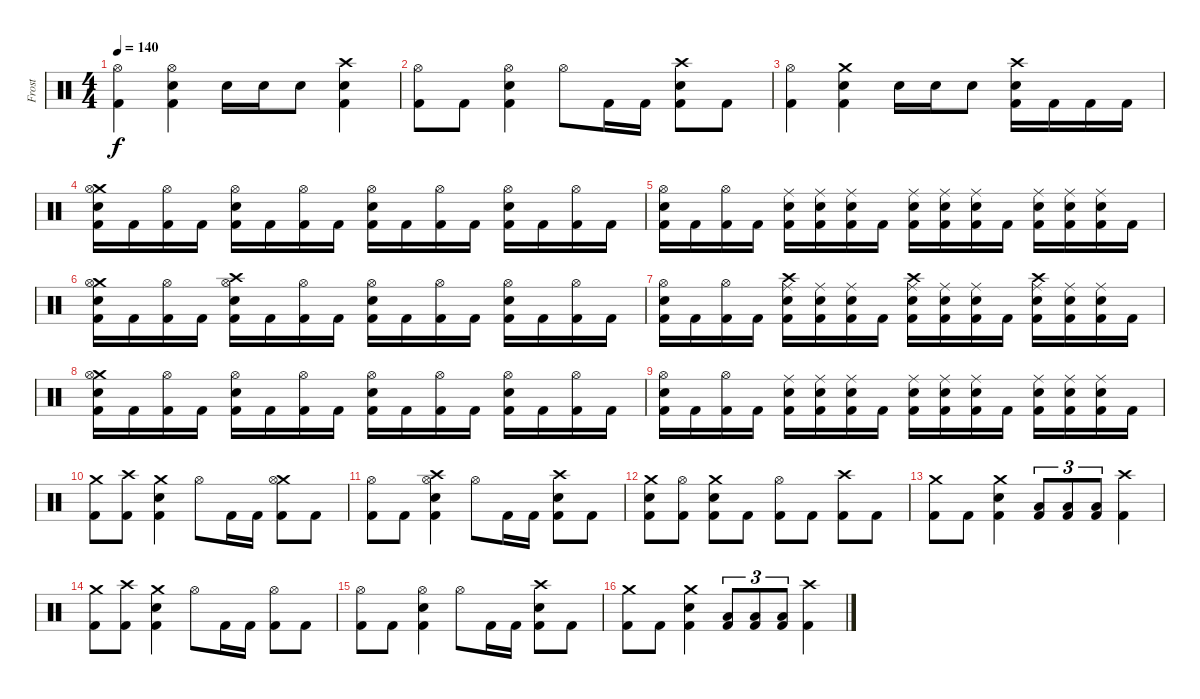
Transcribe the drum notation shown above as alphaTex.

\track ("Frost" "Frost") {instrument percussion}
\staff {score}
\articulation defaults
\ts (4 4)
\tempo 140
\clef neutral
\ks c
("Hi-Hat (open)" "Kick (hit) 2").4{dy f} ("Hi-Hat (open)" "Snare (hit) 2" "Kick (hit) 2").4 "Snare (hit) 2".16 "Snare (hit) 2".16 "Snare (hit) 2".8 ("Crash high (hit)" "Snare (hit) 2" "Kick (hit) 2").4 |
("Hi-Hat (open)" "Kick (hit) 2").8 "Kick (hit) 2".8 ("Hi-Hat (open)" "Snare (hit) 2" "Kick (hit) 2").4 "Hi-Hat (open)".8 "Kick (hit) 2".16 "Kick (hit) 2".16 ("Crash high (hit)" "Snare (hit) 2" "Kick (hit) 2").8 "Kick (hit) 2".8 |
("Hi-Hat (open)" "Kick (hit) 2").4 ("Crash medium (hit)" "Snare (hit) 2" "Kick (hit) 2").4 "Snare (hit) 2".16 "Snare (hit) 2".16 "Snare (hit) 2".8 ("Crash high (hit)" "Snare (hit) 2" "Kick (hit) 2").16 "Kick (hit) 2".16 "Kick (hit) 2".16 "Kick (hit) 2".16 |
("Crash medium (hit)" "Hi-Hat (open)" "Snare (hit) 2" "Kick (hit) 2").16 "Kick (hit) 2".16 ("Hi-Hat (open)" "Kick (hit) 2").16 "Kick (hit) 2".16 ("Hi-Hat (open)" "Snare (hit) 2" "Kick (hit) 2").16 "Kick (hit) 2".16 ("Hi-Hat (open)" "Kick (hit) 2").16 "Kick (hit) 2".16 ("Hi-Hat (open)" "Snare (hit) 2" "Kick (hit) 2").16 "Kick (hit) 2".16 ("Hi-Hat (open)" "Kick (hit) 2").16 "Kick (hit) 2".16 ("Hi-Hat (open)" "Snare (hit) 2" "Kick (hit) 2").16 "Kick (hit) 2".16 ("Hi-Hat (open)" "Kick (hit) 2").16 "Kick (hit) 2".16 |
("Hi-Hat (open)" "Snare (hit) 2" "Kick (hit) 2").16 "Kick (hit) 2".16 ("Hi-Hat (open)" "Kick (hit) 2").16 "Kick (hit) 2".16 ("Ride (middle)" "Snare (hit) 2" "Kick (hit) 2").16 ("Ride (middle)" "Snare (hit) 2" "Kick (hit) 2").16 ("Ride (middle)" "Snare (hit) 2" "Kick (hit) 2").16 "Kick (hit) 2".16 ("Ride (middle)" "Snare (hit) 2" "Kick (hit) 2").16 ("Ride (middle)" "Snare (hit) 2" "Kick (hit) 2").16 ("Ride (middle)" "Snare (hit) 2" "Kick (hit) 2").16 "Kick (hit) 2".16 ("Ride (middle)" "Snare (hit) 2" "Kick (hit) 2").16 ("Ride (middle)" "Snare (hit) 2" "Kick (hit) 2").16 ("Ride (middle)" "Snare (hit) 2" "Kick (hit) 2").16 "Kick (hit) 2".16 |
("Crash medium (hit)" "Hi-Hat (open)" "Snare (hit) 2" "Kick (hit) 2").16 "Kick (hit) 2".16 ("Hi-Hat (open)" "Kick (hit) 2").16 "Kick (hit) 2".16 ("Crash high (hit)" "Hi-Hat (open)" "Snare (hit) 2" "Kick (hit) 2").16 "Kick (hit) 2".16 ("Hi-Hat (open)" "Kick (hit) 2").16 "Kick (hit) 2".16 ("Hi-Hat (open)" "Snare (hit) 2" "Kick (hit) 2").16 "Kick (hit) 2".16 ("Hi-Hat (open)" "Kick (hit) 2").16 "Kick (hit) 2".16 ("Hi-Hat (open)" "Snare (hit) 2" "Kick (hit) 2").16 "Kick (hit) 2".16 ("Hi-Hat (open)" "Kick (hit) 2").16 "Kick (hit) 2".16 |
("Hi-Hat (open)" "Snare (hit) 2" "Kick (hit) 2").16 "Kick (hit) 2".16 ("Hi-Hat (open)" "Kick (hit) 2").16 "Kick (hit) 2".16 ("Crash high (hit)" "Ride (middle)" "Snare (hit) 2" "Kick (hit) 2").16 ("Ride (middle)" "Snare (hit) 2" "Kick (hit) 2").16 ("Ride (middle)" "Snare (hit) 2" "Kick (hit) 2").16 "Kick (hit) 2".16 ("Crash high (hit)" "Ride (middle)" "Snare (hit) 2" "Kick (hit) 2").16 ("Ride (middle)" "Snare (hit) 2" "Kick (hit) 2").16 ("Ride (middle)" "Snare (hit) 2" "Kick (hit) 2").16 "Kick (hit) 2".16 ("Crash high (hit)" "Ride (middle)" "Snare (hit) 2" "Kick (hit) 2").16 ("Ride (middle)" "Snare (hit) 2" "Kick (hit) 2").16 ("Ride (middle)" "Snare (hit) 2" "Kick (hit) 2").16 "Kick (hit) 2".16 |
("Crash medium (hit)" "Hi-Hat (open)" "Snare (hit) 2" "Kick (hit) 2").16 "Kick (hit) 2".16 ("Hi-Hat (open)" "Kick (hit) 2").16 "Kick (hit) 2".16 ("Hi-Hat (open)" "Snare (hit) 2" "Kick (hit) 2").16 "Kick (hit) 2".16 ("Hi-Hat (open)" "Kick (hit) 2").16 "Kick (hit) 2".16 ("Hi-Hat (open)" "Snare (hit) 2" "Kick (hit) 2").16 "Kick (hit) 2".16 ("Hi-Hat (open)" "Kick (hit) 2").16 "Kick (hit) 2".16 ("Hi-Hat (open)" "Snare (hit) 2" "Kick (hit) 2").16 "Kick (hit) 2".16 ("Hi-Hat (open)" "Kick (hit) 2").16 "Kick (hit) 2".16 |
("Hi-Hat (open)" "Snare (hit) 2" "Kick (hit) 2").16 "Kick (hit) 2".16 ("Hi-Hat (open)" "Kick (hit) 2").16 "Kick (hit) 2".16 ("Ride (middle)" "Snare (hit) 2" "Kick (hit) 2").16 ("Ride (middle)" "Snare (hit) 2" "Kick (hit) 2").16 ("Ride (middle)" "Snare (hit) 2" "Kick (hit) 2").16 "Kick (hit) 2".16 ("Ride (middle)" "Snare (hit) 2" "Kick (hit) 2").16 ("Ride (middle)" "Snare (hit) 2" "Kick (hit) 2").16 ("Ride (middle)" "Snare (hit) 2" "Kick (hit) 2").16 "Kick (hit) 2".16 ("Ride (middle)" "Snare (hit) 2" "Kick (hit) 2").16 ("Ride (middle)" "Snare (hit) 2" "Kick (hit) 2").16 ("Ride (middle)" "Snare (hit) 2" "Kick (hit) 2").16 "Kick (hit) 2".16 |
("Crash medium (hit)" "Kick (hit) 2").8 ("Crash high (hit)" "Kick (hit) 2").8 ("Crash medium (hit)" "Snare (hit) 2" "Kick (hit) 2").4 "Hi-Hat (open)".8 "Kick (hit) 2".16 "Kick (hit) 2".16 ("Crash medium (hit)" "Hi-Hat (open)" "Kick (hit) 2").8 "Kick (hit) 2".8 |
("Hi-Hat (open)" "Kick (hit) 2").8 "Kick (hit) 2".8 ("Crash high (hit)" "Hi-Hat (open)" "Snare (hit) 2" "Kick (hit) 2").4 "Hi-Hat (open)".8 "Kick (hit) 2".16 "Kick (hit) 2".16 ("Crash high (hit)" "Snare (hit) 2" "Kick (hit) 2").8 "Kick (hit) 2".8 |
("Crash medium (hit)" "Snare (hit) 2" "Kick (hit) 2").8 ("Hi-Hat (open)" "Kick (hit) 2").8 ("Crash medium (hit)" "Snare (hit) 2" "Kick (hit) 2").8 "Kick (hit) 2".8 ("Hi-Hat (open)" "Kick (hit) 2").8 "Kick (hit) 2".8 ("Crash high (hit)" "Kick (hit) 2").8 "Kick (hit) 2".8 |
("Crash medium (hit)" "Kick (hit) 2").8 "Kick (hit) 2".8 ("Crash medium (hit)" "Snare (hit) 2" "Kick (hit) 2").4 ("Low Tom (hit)" "Kick (hit) 2").8{tu (3 2)} ("Low Tom (hit)" "Kick (hit) 2").8{tu (3 2)} ("Low Tom (hit)" "Kick (hit) 2").8{tu (3 2)} ("Crash high (hit)" "Kick (hit) 2").4 |
("Crash medium (hit)" "Kick (hit) 2").8 ("Crash high (hit)" "Kick (hit) 2").8 ("Crash medium (hit)" "Snare (hit) 2" "Kick (hit) 2").4 "Hi-Hat (open)".8 "Kick (hit) 2".16 "Kick (hit) 2".16 ("Hi-Hat (open)" "Kick (hit) 2").8 "Kick (hit) 2".8 |
("Hi-Hat (open)" "Kick (hit) 2").8 "Kick (hit) 2".8 ("Hi-Hat (open)" "Snare (hit) 2" "Kick (hit) 2").4 "Hi-Hat (open)".8 "Kick (hit) 2".16 "Kick (hit) 2".16 ("Crash high (hit)" "Snare (hit) 2" "Kick (hit) 2").8 "Kick (hit) 2".8 |
("Crash medium (hit)" "Kick (hit) 2").8 "Kick (hit) 2".8 ("Crash medium (hit)" "Snare (hit) 2" "Kick (hit) 2").4 ("Low Tom (hit)" "Kick (hit) 2").8{tu (3 2)} ("Low Tom (hit)" "Kick (hit) 2").8{tu (3 2)} ("Low Tom (hit)" "Kick (hit) 2").8{tu (3 2)} ("Crash high (hit)" "Kick (hit) 2").4
